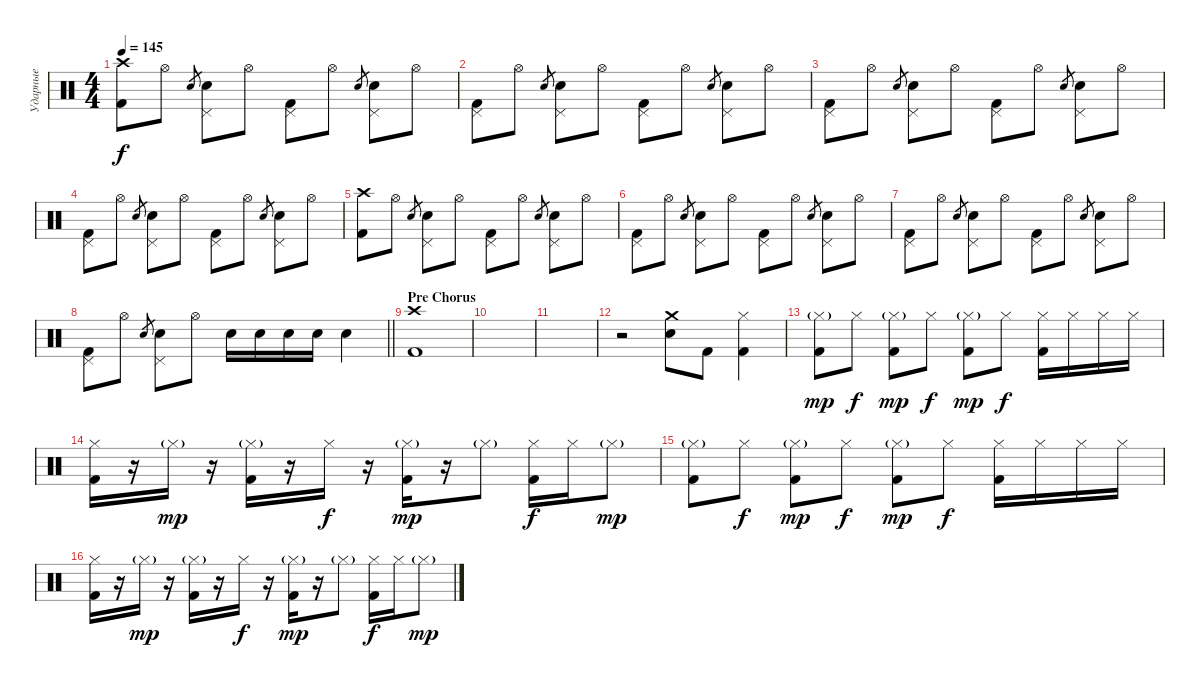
\track ("Ударные" "Ударные") {instrument percussion}
\staff {score}
\articulation defaults
\ts (4 4)
\tempo 145
\clef neutral
\ks c
("Crash high (hit)" "Kick (hit) 2").8{dy f} "Hi-Hat (open)".8 "Electric Snare (hit)".8{gr} ("Pedal Hi-Hat (hit)" "Electric Snare (hit)").8 "Hi-Hat (open)".8 ("Pedal Hi-Hat (hit)" "Kick (hit) 2").8 "Hi-Hat (open)".8 "Electric Snare (hit)".8{gr} ("Pedal Hi-Hat (hit)" "Electric Snare (hit)").8 "Hi-Hat (open)".8 |
("Pedal Hi-Hat (hit)" "Kick (hit) 2").8 "Hi-Hat (open)".8 "Electric Snare (hit)".8{gr} ("Pedal Hi-Hat (hit)" "Electric Snare (hit)").8 "Hi-Hat (open)".8 ("Pedal Hi-Hat (hit)" "Kick (hit) 2").8 "Hi-Hat (open)".8 "Electric Snare (hit)".8{gr} ("Pedal Hi-Hat (hit)" "Electric Snare (hit)").8 "Hi-Hat (open)".8 |
("Pedal Hi-Hat (hit)" "Kick (hit) 2").8 "Hi-Hat (open)".8 "Electric Snare (hit)".8{gr} ("Pedal Hi-Hat (hit)" "Electric Snare (hit)").8 "Hi-Hat (open)".8 ("Pedal Hi-Hat (hit)" "Kick (hit) 2").8 "Hi-Hat (open)".8 "Electric Snare (hit)".8{gr} ("Pedal Hi-Hat (hit)" "Electric Snare (hit)").8 "Hi-Hat (open)".8 |
("Pedal Hi-Hat (hit)" "Kick (hit) 2").8 "Hi-Hat (open)".8 "Electric Snare (hit)".8{gr} ("Pedal Hi-Hat (hit)" "Electric Snare (hit)").8 "Hi-Hat (open)".8 ("Pedal Hi-Hat (hit)" "Kick (hit) 2").8 "Hi-Hat (open)".8 "Electric Snare (hit)".8{gr} ("Pedal Hi-Hat (hit)" "Electric Snare (hit)").8 "Hi-Hat (open)".8 |
("Crash high (hit)" "Kick (hit) 2").8 "Hi-Hat (open)".8 "Electric Snare (hit)".8{gr} ("Pedal Hi-Hat (hit)" "Electric Snare (hit)").8 "Hi-Hat (open)".8 ("Pedal Hi-Hat (hit)" "Kick (hit) 2").8 "Hi-Hat (open)".8 "Electric Snare (hit)".8{gr} ("Pedal Hi-Hat (hit)" "Electric Snare (hit)").8 "Hi-Hat (open)".8 |
("Pedal Hi-Hat (hit)" "Kick (hit) 2").8 "Hi-Hat (open)".8 "Electric Snare (hit)".8{gr} ("Pedal Hi-Hat (hit)" "Electric Snare (hit)").8 "Hi-Hat (open)".8 ("Pedal Hi-Hat (hit)" "Kick (hit) 2").8 "Hi-Hat (open)".8 "Electric Snare (hit)".8{gr} ("Pedal Hi-Hat (hit)" "Electric Snare (hit)").8 "Hi-Hat (open)".8 |
("Pedal Hi-Hat (hit)" "Kick (hit) 2").8 "Hi-Hat (open)".8 "Electric Snare (hit)".8{gr} ("Pedal Hi-Hat (hit)" "Electric Snare (hit)").8 "Hi-Hat (open)".8 ("Pedal Hi-Hat (hit)" "Kick (hit) 2").8 "Hi-Hat (open)".8 "Electric Snare (hit)".8{gr} ("Pedal Hi-Hat (hit)" "Electric Snare (hit)").8 "Hi-Hat (open)".8 |
\barLineRight lightlight
("Pedal Hi-Hat (hit)" "Kick (hit) 2").8 "Hi-Hat (open)".8 "Electric Snare (hit)".8{gr} ("Pedal Hi-Hat (hit)" "Electric Snare (hit)").8 "Hi-Hat (open)".8 "Electric Snare (hit)".16 "Electric Snare (hit)".16 "Electric Snare (hit)".16 "Electric Snare (hit)".16 "Electric Snare (hit)".4 |
\section ("" "Pre Chorus")
("Crash high (hit)" "Kick (hit) 2").1 |
|
|
r.2 ("Crash medium (hit)" "Electric Snare (hit)").8 "Kick (hit) 2".8 ("Hi-Hat (closed)" "Kick (hit) 2").4 |
("Hi-Hat (closed)"{g} "Kick (hit) 2").8{dy mp} "Hi-Hat (closed)".8{dy f} ("Hi-Hat (closed)"{g} "Kick (hit) 2").8{dy mp} "Hi-Hat (closed)".8{dy f} ("Hi-Hat (closed)"{g} "Kick (hit) 2").8{dy mp} "Hi-Hat (closed)".8{dy f} ("Hi-Hat (closed)" "Kick (hit) 2").16 "Hi-Hat (closed)".16 "Hi-Hat (closed)".16 "Hi-Hat (closed)".16 |
("Hi-Hat (closed)" "Kick (hit) 2").16 r.16 "Hi-Hat (closed)"{g}.16{dy mp} r.16 ("Hi-Hat (closed)"{g} "Kick (hit) 2").16 r.16 "Hi-Hat (closed)".16{dy f} r.16 ("Hi-Hat (closed)"{g} "Kick (hit) 2").16{dy mp} r.16 "Hi-Hat (closed)"{g}.8 ("Hi-Hat (closed)" "Kick (hit) 2").16{dy f} "Hi-Hat (closed)".16 "Hi-Hat (closed)"{g}.8{dy mp} |
("Hi-Hat (closed)"{g} "Kick (hit) 2").8 "Hi-Hat (closed)".8{dy f} ("Hi-Hat (closed)"{g} "Kick (hit) 2").8{dy mp} "Hi-Hat (closed)".8{dy f} ("Hi-Hat (closed)"{g} "Kick (hit) 2").8{dy mp} "Hi-Hat (closed)".8{dy f} ("Hi-Hat (closed)" "Kick (hit) 2").16 "Hi-Hat (closed)".16 "Hi-Hat (closed)".16 "Hi-Hat (closed)".16 |
("Hi-Hat (closed)" "Kick (hit) 2").16 r.16 "Hi-Hat (closed)"{g}.16{dy mp} r.16 ("Hi-Hat (closed)"{g} "Kick (hit) 2").16 r.16 "Hi-Hat (closed)".16{dy f} r.16 ("Hi-Hat (closed)"{g} "Kick (hit) 2").16{dy mp} r.16 "Hi-Hat (closed)"{g}.8 ("Hi-Hat (closed)" "Kick (hit) 2").16{dy f} "Hi-Hat (closed)".16 "Hi-Hat (closed)"{g}.8{dy mp}
